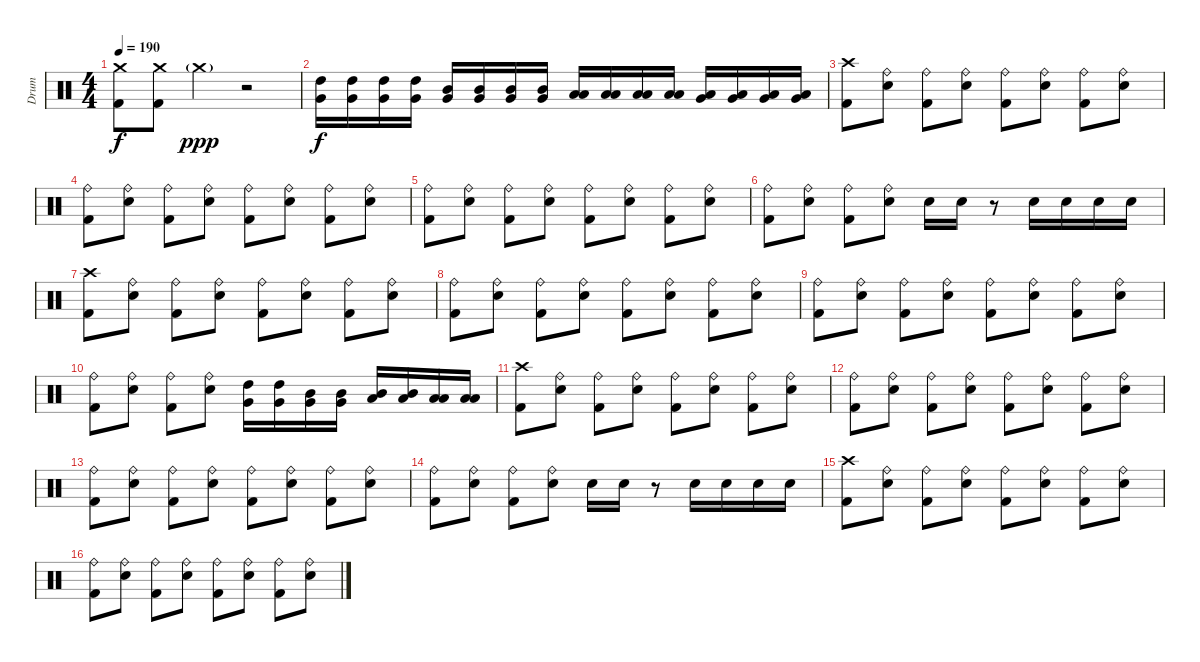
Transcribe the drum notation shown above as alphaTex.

\track ("Drum" "Drum") {instrument percussion}
\staff {score}
\articulation defaults
\ts (4 4)
\tempo 190
\clef neutral
\ks c
("Crash medium (hit)" "Kick (hit) 2").8{dy f} ("Crash medium (hit)" "Kick (hit) 2").8 "Crash medium (hit)"{g}.4{dy ppp} r.2 |
("High Tom (hit)" "Very Low Tom (hit)").16{dy f} ("High Tom (hit)" "Very Low Tom (hit)").16 ("High Tom (hit)" "Very Low Tom (hit)").16 ("High Tom (hit)" "Very Low Tom (hit)").16 ("Mid Tom (hit)" "Very Low Tom (hit)").16 ("Mid Tom (hit)" "Very Low Tom (hit)").16 ("Mid Tom (hit)" "Very Low Tom (hit)").16 ("Mid Tom (hit)" "Very Low Tom (hit)").16 ("Low Tom (hit)" "Low Floor Tom (hit)").16 ("Low Tom (hit)" "Low Floor Tom (hit)").16 ("Low Tom (hit)" "Low Floor Tom (hit)").16 ("Low Tom (hit)" "Low Floor Tom (hit)").16 ("Very Low Tom (hit)" "Low Floor Tom (hit)").16 ("Very Low Tom (hit)" "Low Floor Tom (hit)").16 ("Very Low Tom (hit)" "Low Floor Tom (hit)").16 ("Very Low Tom (hit)" "Low Floor Tom (hit)").16 |
("Crash high (hit)" "Kick (hit) 2").8 ("Ride (bell)" "Snare (hit) 2").8 ("Ride (bell)" "Kick (hit) 2").8 ("Ride (bell)" "Snare (hit) 2").8 ("Ride (bell)" "Kick (hit) 2").8 ("Ride (bell)" "Snare (hit) 2").8 ("Ride (bell)" "Kick (hit) 2").8 ("Ride (bell)" "Snare (hit) 2").8 |
("Ride (bell)" "Kick (hit) 2").8 ("Ride (bell)" "Snare (hit) 2").8 ("Ride (bell)" "Kick (hit) 2").8 ("Ride (bell)" "Snare (hit) 2").8 ("Ride (bell)" "Kick (hit) 2").8 ("Ride (bell)" "Snare (hit) 2").8 ("Ride (bell)" "Kick (hit) 2").8 ("Ride (bell)" "Snare (hit) 2").8 |
("Ride (bell)" "Kick (hit) 2").8 ("Ride (bell)" "Snare (hit) 2").8 ("Ride (bell)" "Kick (hit) 2").8 ("Ride (bell)" "Snare (hit) 2").8 ("Ride (bell)" "Kick (hit) 2").8 ("Ride (bell)" "Snare (hit) 2").8 ("Ride (bell)" "Kick (hit) 2").8 ("Ride (bell)" "Snare (hit) 2").8 |
("Ride (bell)" "Kick (hit) 2").8 ("Ride (bell)" "Snare (hit) 2").8 ("Ride (bell)" "Kick (hit) 2").8 ("Ride (bell)" "Snare (hit) 2").8 "Snare (hit) 2".16 "Snare (hit) 2".16 r.8 "Snare (hit) 2".16 "Snare (hit) 2".16 "Snare (hit) 2".16 "Snare (hit) 2".16 |
("Crash high (hit)" "Kick (hit) 2").8 ("Ride (bell)" "Snare (hit) 2").8 ("Ride (bell)" "Kick (hit) 2").8 ("Ride (bell)" "Snare (hit) 2").8 ("Ride (bell)" "Kick (hit) 2").8 ("Ride (bell)" "Snare (hit) 2").8 ("Ride (bell)" "Kick (hit) 2").8 ("Ride (bell)" "Snare (hit) 2").8 |
("Ride (bell)" "Kick (hit) 2").8 ("Ride (bell)" "Snare (hit) 2").8 ("Ride (bell)" "Kick (hit) 2").8 ("Ride (bell)" "Snare (hit) 2").8 ("Ride (bell)" "Kick (hit) 2").8 ("Ride (bell)" "Snare (hit) 2").8 ("Ride (bell)" "Kick (hit) 2").8 ("Ride (bell)" "Snare (hit) 2").8 |
("Ride (bell)" "Kick (hit) 2").8 ("Ride (bell)" "Snare (hit) 2").8 ("Ride (bell)" "Kick (hit) 2").8 ("Ride (bell)" "Snare (hit) 2").8 ("Ride (bell)" "Kick (hit) 2").8 ("Ride (bell)" "Snare (hit) 2").8 ("Ride (bell)" "Kick (hit) 2").8 ("Ride (bell)" "Snare (hit) 2").8 |
("Ride (bell)" "Kick (hit) 2").8 ("Ride (bell)" "Snare (hit) 2").8 ("Ride (bell)" "Kick (hit) 2").8 ("Ride (bell)" "Snare (hit) 2").8 ("High Tom (hit)" "Very Low Tom (hit)").16 ("High Tom (hit)" "Very Low Tom (hit)").16 ("Mid Tom (hit)" "Very Low Tom (hit)").16 ("Mid Tom (hit)" "Very Low Tom (hit)").16 ("Mid Tom (hit)" "Low Floor Tom (hit)").16 ("Mid Tom (hit)" "Low Floor Tom (hit)").16 ("Low Tom (hit)" "Low Floor Tom (hit)").16 ("Low Tom (hit)" "Low Floor Tom (hit)").16 |
("Crash high (hit)" "Kick (hit) 2").8 ("Ride (bell)" "Snare (hit) 2").8 ("Ride (bell)" "Kick (hit) 2").8 ("Ride (bell)" "Snare (hit) 2").8 ("Ride (bell)" "Kick (hit) 2").8 ("Ride (bell)" "Snare (hit) 2").8 ("Ride (bell)" "Kick (hit) 2").8 ("Ride (bell)" "Snare (hit) 2").8 |
("Ride (bell)" "Kick (hit) 2").8 ("Ride (bell)" "Snare (hit) 2").8 ("Ride (bell)" "Kick (hit) 2").8 ("Ride (bell)" "Snare (hit) 2").8 ("Ride (bell)" "Kick (hit) 2").8 ("Ride (bell)" "Snare (hit) 2").8 ("Ride (bell)" "Kick (hit) 2").8 ("Ride (bell)" "Snare (hit) 2").8 |
("Ride (bell)" "Kick (hit) 2").8 ("Ride (bell)" "Snare (hit) 2").8 ("Ride (bell)" "Kick (hit) 2").8 ("Ride (bell)" "Snare (hit) 2").8 ("Ride (bell)" "Kick (hit) 2").8 ("Ride (bell)" "Snare (hit) 2").8 ("Ride (bell)" "Kick (hit) 2").8 ("Ride (bell)" "Snare (hit) 2").8 |
("Ride (bell)" "Kick (hit) 2").8 ("Ride (bell)" "Snare (hit) 2").8 ("Ride (bell)" "Kick (hit) 2").8 ("Ride (bell)" "Snare (hit) 2").8 "Snare (hit) 2".16 "Snare (hit) 2".16 r.8 "Snare (hit) 2".16 "Snare (hit) 2".16 "Snare (hit) 2".16 "Snare (hit) 2".16 |
("Crash high (hit)" "Kick (hit) 2").8 ("Ride (bell)" "Snare (hit) 2").8 ("Ride (bell)" "Kick (hit) 2").8 ("Ride (bell)" "Snare (hit) 2").8 ("Ride (bell)" "Kick (hit) 2").8 ("Ride (bell)" "Snare (hit) 2").8 ("Ride (bell)" "Kick (hit) 2").8 ("Ride (bell)" "Snare (hit) 2").8 |
("Ride (bell)" "Kick (hit) 2").8 ("Ride (bell)" "Snare (hit) 2").8 ("Ride (bell)" "Kick (hit) 2").8 ("Ride (bell)" "Snare (hit) 2").8 ("Ride (bell)" "Kick (hit) 2").8 ("Ride (bell)" "Snare (hit) 2").8 ("Ride (bell)" "Kick (hit) 2").8 ("Ride (bell)" "Snare (hit) 2").8
